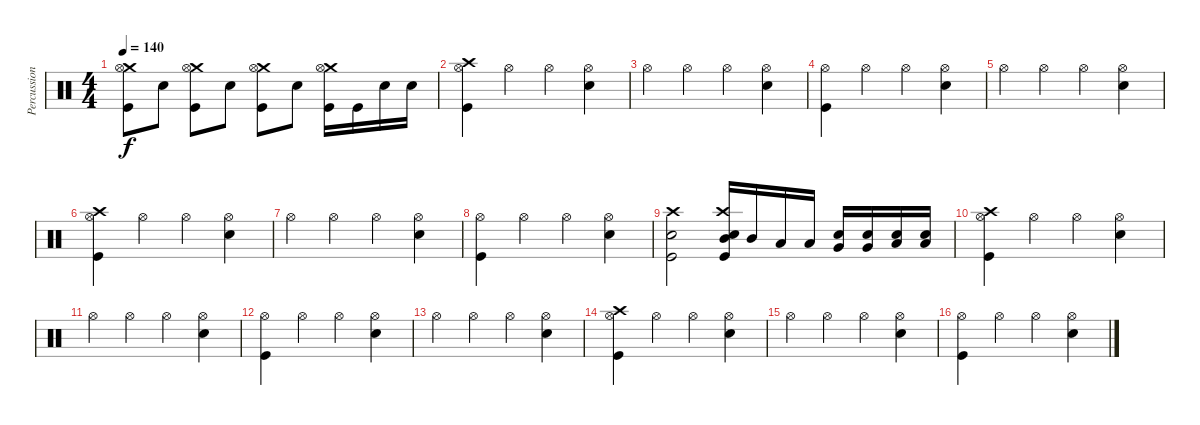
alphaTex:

\track ("Percussion" "Percussion") {instrument percussion}
\staff {score}
\articulation defaults
\ts (4 4)
\tempo 140
\clef neutral
\ks c
("Crash medium (hit)" "Hi-Hat (open)" "Kick (hit)").8{dy f} "Electric Snare (hit)".8 ("Crash medium (hit)" "Hi-Hat (open)" "Kick (hit)").8 "Electric Snare (hit)".8 ("Crash medium (hit)" "Hi-Hat (open)" "Kick (hit)").8 "Electric Snare (hit)".8 ("Crash medium (hit)" "Hi-Hat (open)" "Kick (hit)").16 "Kick (hit)".16 "Electric Snare (hit)".16 "Electric Snare (hit)".16 |
("Kick (hit)" "Hi-Hat (open)" "Crash high (hit)").4 "Hi-Hat (open)".4 "Hi-Hat (open)".4 ("Electric Snare (hit)" "Hi-Hat (open)").4 |
"Hi-Hat (open)".4 "Hi-Hat (open)".4 "Hi-Hat (open)".4 ("Electric Snare (hit)" "Hi-Hat (open)").4 |
("Kick (hit)" "Hi-Hat (open)").4 "Hi-Hat (open)".4 "Hi-Hat (open)".4 ("Electric Snare (hit)" "Hi-Hat (open)").4 |
"Hi-Hat (open)".4 "Hi-Hat (open)".4 "Hi-Hat (open)".4 ("Electric Snare (hit)" "Hi-Hat (open)").4 |
("Kick (hit)" "Hi-Hat (open)" "Crash high (hit)").4 "Hi-Hat (open)".4 "Hi-Hat (open)".4 ("Electric Snare (hit)" "Hi-Hat (open)").4 |
"Hi-Hat (open)".4 "Hi-Hat (open)".4 "Hi-Hat (open)".4 ("Electric Snare (hit)" "Hi-Hat (open)").4 |
("Kick (hit)" "Hi-Hat (open)").4 "Hi-Hat (open)".4 "Hi-Hat (open)".4 ("Electric Snare (hit)" "Hi-Hat (open)").4 |
("Crash high (hit)" "Electric Snare (hit)" "Kick (hit)").2 ("Mid Tom (hit)" "Crash high (hit)" "Electric Snare (hit)" "Kick (hit)").16 "Mid Tom (hit)".16 "Low Tom (hit)".16 "Low Tom (hit)".16 ("Very Low Tom (hit)" "Electric Snare (hit)").16 ("Very Low Tom (hit)" "Electric Snare (hit)").16 ("Low Floor Tom (hit)" "Electric Snare (hit)").16 ("Low Floor Tom (hit)" "Electric Snare (hit)").16 |
("Kick (hit)" "Hi-Hat (open)" "Crash high (hit)").4 "Hi-Hat (open)".4 "Hi-Hat (open)".4 ("Electric Snare (hit)" "Hi-Hat (open)").4 |
"Hi-Hat (open)".4 "Hi-Hat (open)".4 "Hi-Hat (open)".4 ("Electric Snare (hit)" "Hi-Hat (open)").4 |
("Kick (hit)" "Hi-Hat (open)").4 "Hi-Hat (open)".4 "Hi-Hat (open)".4 ("Electric Snare (hit)" "Hi-Hat (open)").4 |
"Hi-Hat (open)".4 "Hi-Hat (open)".4 "Hi-Hat (open)".4 ("Electric Snare (hit)" "Hi-Hat (open)").4 |
("Kick (hit)" "Hi-Hat (open)" "Crash high (hit)").4 "Hi-Hat (open)".4 "Hi-Hat (open)".4 ("Electric Snare (hit)" "Hi-Hat (open)").4 |
"Hi-Hat (open)".4 "Hi-Hat (open)".4 "Hi-Hat (open)".4 ("Electric Snare (hit)" "Hi-Hat (open)").4 |
("Kick (hit)" "Hi-Hat (open)").4 "Hi-Hat (open)".4 "Hi-Hat (open)".4 ("Electric Snare (hit)" "Hi-Hat (open)").4
